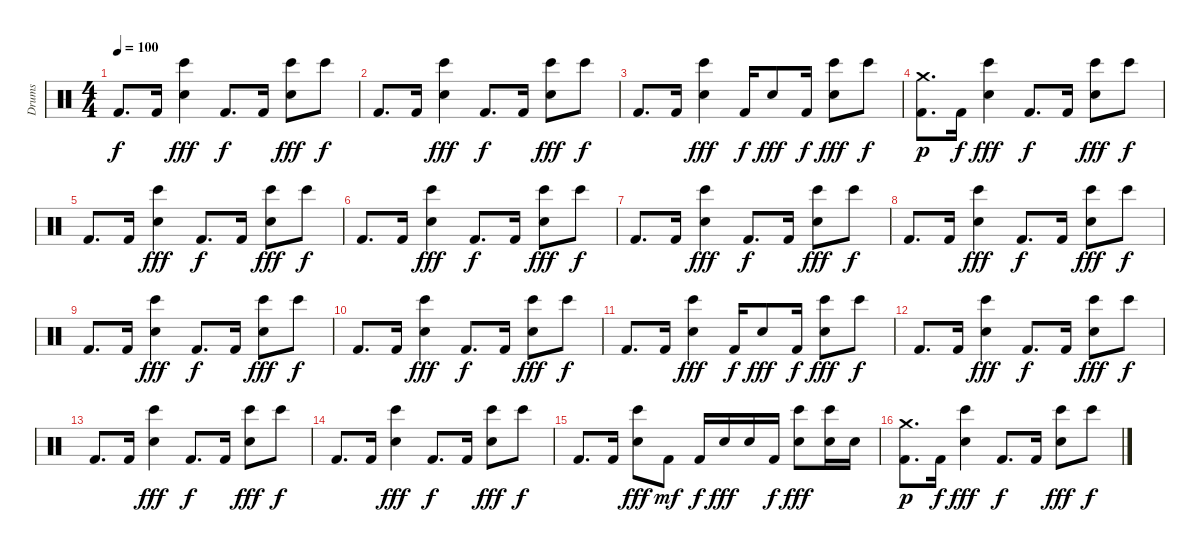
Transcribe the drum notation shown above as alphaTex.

\track ("Drums" "Drums") {instrument percussion}
\staff {score}
\articulation defaults
\ts (4 4)
\tempo 100
\clef neutral
\ks c "Kick (hit) 2".8{d dy f} "Kick (hit) 2".16
("Snare (hit) 2" "Bongo High (hit)").4{dy fff} "Kick (hit) 2".8{d dy f} "Kick (hit) 2".16 ("Snare (hit) 2" "Bongo High (hit)").8{dy fff} "Bongo High (hit)".8{dy f} |
"Kick (hit) 2".8{d} "Kick (hit) 2".16 ("Snare (hit) 2" "Bongo High (hit)").4{dy fff} "Kick (hit) 2".8{d dy f} "Kick (hit) 2".16 ("Snare (hit) 2" "Bongo High (hit)").8{dy fff} "Bongo High (hit)".8{dy f} |
"Kick (hit) 2".8{d} "Kick (hit) 2".16 ("Snare (hit) 2" "Bongo High (hit)").4{dy fff} "Kick (hit) 2".16{dy f} "Snare (hit) 2".8{dy fff} "Kick (hit) 2".16{dy f} ("Snare (hit) 2" "Bongo High (hit)").8{dy fff} "Bongo High (hit)".8{dy f} |
("Kick (hit) 2" "Crash medium (hit)").8{d dy p} "Kick (hit) 2".16{dy f} ("Snare (hit) 2" "Bongo High (hit)").4{dy fff} "Kick (hit) 2".8{d dy f} "Kick (hit) 2".16 ("Snare (hit) 2" "Bongo High (hit)").8{dy fff} "Bongo High (hit)".8{dy f} |
"Kick (hit) 2".8{d} "Kick (hit) 2".16 ("Snare (hit) 2" "Bongo High (hit)").4{dy fff} "Kick (hit) 2".8{d dy f} "Kick (hit) 2".16 ("Snare (hit) 2" "Bongo High (hit)").8{dy fff} "Bongo High (hit)".8{dy f} |
"Kick (hit) 2".8{d} "Kick (hit) 2".16 ("Snare (hit) 2" "Bongo High (hit)").4{dy fff} "Kick (hit) 2".8{d dy f} "Kick (hit) 2".16 ("Snare (hit) 2" "Bongo High (hit)").8{dy fff} "Bongo High (hit)".8{dy f} |
"Kick (hit) 2".8{d} "Kick (hit) 2".16 ("Snare (hit) 2" "Bongo High (hit)").4{dy fff} "Kick (hit) 2".8{d dy f} "Kick (hit) 2".16 ("Snare (hit) 2" "Bongo High (hit)").8{dy fff} "Bongo High (hit)".8{dy f} |
"Kick (hit) 2".8{d} "Kick (hit) 2".16 ("Snare (hit) 2" "Bongo High (hit)").4{dy fff} "Kick (hit) 2".8{d dy f} "Kick (hit) 2".16 ("Snare (hit) 2" "Bongo High (hit)").8{dy fff} "Bongo High (hit)".8{dy f} |
"Kick (hit) 2".8{d} "Kick (hit) 2".16 ("Snare (hit) 2" "Bongo High (hit)").4{dy fff} "Kick (hit) 2".8{d dy f} "Kick (hit) 2".16 ("Snare (hit) 2" "Bongo High (hit)").8{dy fff} "Bongo High (hit)".8{dy f} |
"Kick (hit) 2".8{d} "Kick (hit) 2".16 ("Snare (hit) 2" "Bongo High (hit)").4{dy fff} "Kick (hit) 2".8{d dy f} "Kick (hit) 2".16 ("Snare (hit) 2" "Bongo High (hit)").8{dy fff} "Bongo High (hit)".8{dy f} |
"Kick (hit) 2".8{d} "Kick (hit) 2".16 ("Snare (hit) 2" "Bongo High (hit)").4{dy fff} "Kick (hit) 2".16{dy f} "Snare (hit) 2".8{dy fff} "Kick (hit) 2".16{dy f} ("Snare (hit) 2" "Bongo High (hit)").8{dy fff} "Bongo High (hit)".8{dy f} |
"Kick (hit) 2".8{d} "Kick (hit) 2".16 ("Snare (hit) 2" "Bongo High (hit)").4{dy fff} "Kick (hit) 2".8{d dy f} "Kick (hit) 2".16 ("Snare (hit) 2" "Bongo High (hit)").8{dy fff} "Bongo High (hit)".8{dy f} |
"Kick (hit) 2".8{d} "Kick (hit) 2".16 ("Snare (hit) 2" "Bongo High (hit)").4{dy fff} "Kick (hit) 2".8{d dy f} "Kick (hit) 2".16 ("Snare (hit) 2" "Bongo High (hit)").8{dy fff} "Bongo High (hit)".8{dy f} |
"Kick (hit) 2".8{d} "Kick (hit) 2".16 ("Snare (hit) 2" "Bongo High (hit)").4{dy fff} "Kick (hit) 2".8{d dy f} "Kick (hit) 2".16 ("Snare (hit) 2" "Bongo High (hit)").8{dy fff} "Bongo High (hit)".8{dy f} |
"Kick (hit) 2".8{d} "Kick (hit) 2".16 ("Snare (hit) 2" "Bongo High (hit)").8{dy fff} "Kick (hit) 2".8{dy mf} "Kick (hit) 2".16{dy f} "Snare (hit) 2".16{dy fff} "Snare (hit) 2".16 "Kick (hit) 2".16{dy f} ("Snare (hit) 2" "Bongo High (hit)").8{dy fff} ("Snare (hit) 2" "Bongo High (hit)").16 "Snare (hit) 2".16 |
("Kick (hit) 2" "Crash medium (hit)").8{d dy p} "Kick (hit) 2".16{dy f} ("Snare (hit) 2" "Bongo High (hit)").4{dy fff} "Kick (hit) 2".8{d dy f} "Kick (hit) 2".16 ("Snare (hit) 2" "Bongo High (hit)").8{dy fff} "Bongo High (hit)".8{dy f}
